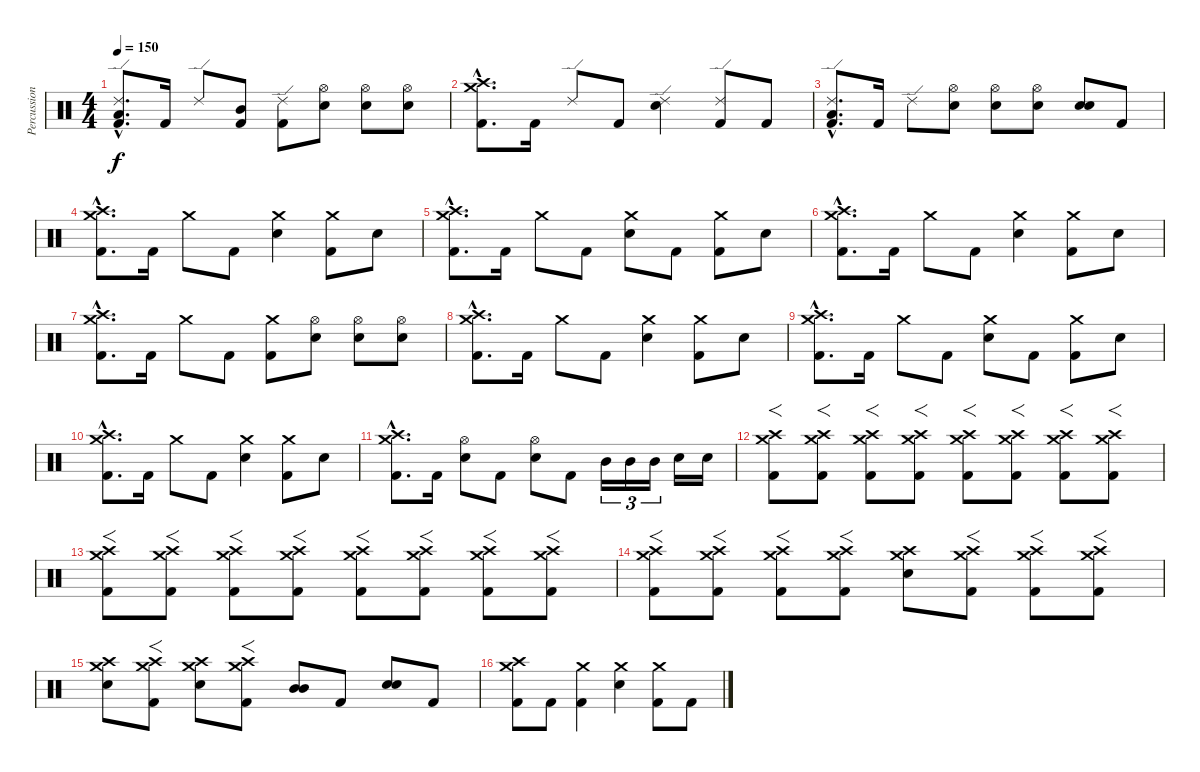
\track ("Percussion" "Percussion") {instrument percussion}
\staff {score}
\articulation defaults
\ts (4 4)
\tempo 150
\clef neutral
\ks c
("Ride (edge) 2"{hac} "Low Floor Tom (hit)"{hac} "Kick (hit) 2"{hac}).8{d dy f} "Kick (hit) 2".16 "Ride (edge) 2".8 ("Mid Tom (hit)" "Kick (hit) 2").8 ("Ride (edge) 2" "Kick (hit) 2").8 ("Hi-Hat (open)" "Snare (hit) 2").8 ("Hi-Hat (open)" "Snare (hit) 2").8 ("Hi-Hat (open)" "Snare (hit) 2").8 |
("Crash medium (hit)"{hac} "Crash high (hit)"{hac} "Kick (hit) 2"{hac}).8{d} "Kick (hit) 2".16 "Ride (edge) 2".8 "Kick (hit) 2".8 ("Ride (edge) 2" "Snare (hit) 2").4 ("Ride (edge) 2" "Kick (hit) 2").8 "Kick (hit) 2".8 |
("Ride (edge) 2"{hac} "Low Floor Tom (hit)"{hac} "Kick (hit) 2"{hac}).8{d} "Kick (hit) 2".16 "Ride (edge) 2".8 ("Hi-Hat (open)" "Snare (hit) 2").8 ("Hi-Hat (open)" "Snare (hit) 2").8 ("Hi-Hat (open)" "Snare (hit) 2").8 ("Snare (hit) 2" "Snare (hit) 2").8 "Kick (hit) 2".8 |
("Crash medium (hit)"{hac} "Crash high (hit)"{hac} "Kick (hit) 2"{hac}).8{d} "Kick (hit) 2".16 "Crash medium (hit)".8 "Kick (hit) 2".8 ("Crash medium (hit)" "Snare (hit) 2").4 ("Crash medium (hit)" "Kick (hit) 2").8 "Snare (hit) 2".8 |
("Crash medium (hit)"{hac} "Crash high (hit)"{hac} "Kick (hit) 2"{hac}).8{d} "Kick (hit) 2".16 "Crash medium (hit)".8 "Kick (hit) 2".8 ("Crash medium (hit)" "Snare (hit) 2").8 "Kick (hit) 2".8 ("Crash medium (hit)" "Kick (hit) 2").8 "Snare (hit) 2".8 |
("Crash medium (hit)"{hac} "Crash high (hit)"{hac} "Kick (hit) 2"{hac}).8{d} "Kick (hit) 2".16 "Crash medium (hit)".8 "Kick (hit) 2".8 ("Crash medium (hit)" "Snare (hit) 2").4 ("Crash medium (hit)" "Kick (hit) 2").8 "Snare (hit) 2".8 |
("Crash medium (hit)"{hac} "Crash high (hit)"{hac} "Kick (hit) 2"{hac}).8{d} "Kick (hit) 2".16 "Crash medium (hit)".8 "Kick (hit) 2".8 ("Crash medium (hit)" "Kick (hit) 2").8 ("Hi-Hat (open)" "Snare (hit) 2").8 ("Hi-Hat (open)" "Snare (hit) 2").8 ("Hi-Hat (open)" "Snare (hit) 2").8 |
("Crash medium (hit)"{hac} "Crash high (hit)"{hac} "Kick (hit) 2"{hac}).8{d} "Kick (hit) 2".16 "Crash medium (hit)".8 "Kick (hit) 2".8 ("Crash medium (hit)" "Snare (hit) 2").4 ("Crash medium (hit)" "Kick (hit) 2").8 "Snare (hit) 2".8 |
("Crash medium (hit)"{hac} "Crash high (hit)"{hac} "Kick (hit) 2"{hac}).8{d} "Kick (hit) 2".16 "Crash medium (hit)".8 "Kick (hit) 2".8 ("Crash medium (hit)" "Snare (hit) 2").8 "Kick (hit) 2".8 ("Crash medium (hit)" "Kick (hit) 2").8 "Snare (hit) 2".8 |
("Crash medium (hit)"{hac} "Crash high (hit)"{hac} "Kick (hit) 2"{hac}).8{d} "Kick (hit) 2".16 "Crash medium (hit)".8 "Kick (hit) 2".8 ("Crash medium (hit)" "Snare (hit) 2").4 ("Crash medium (hit)" "Kick (hit) 2").8 "Snare (hit) 2".8 |
("Crash medium (hit)"{hac} "Crash high (hit)"{hac} "Kick (hit) 2"{hac}).8{d} "Kick (hit) 2".16 ("Hi-Hat (open)" "Snare (hit) 2").8 "Kick (hit) 2".8 ("Hi-Hat (open)" "Snare (hit) 2").8 "Kick (hit) 2".8 "Mid Tom (hit)".16{tu (3 2)} "Mid Tom (hit)".16{tu (3 2)} "Mid Tom (hit)".16{tu (3 2)} "Snare (hit) 2".16 "Snare (hit) 2".16 |
("Crash medium (hit)" "Crash high (hit)" "Kick (hit) 2").8{f} ("Crash medium (hit)" "Crash high (hit)" "Kick (hit) 2").8{f} ("Crash medium (hit)" "Crash high (hit)" "Kick (hit) 2").8{f} ("Crash medium (hit)" "Crash high (hit)" "Kick (hit) 2").8{f} ("Crash medium (hit)" "Crash high (hit)" "Kick (hit) 2").8{f} ("Crash medium (hit)" "Crash high (hit)" "Kick (hit) 2").8{f} ("Crash medium (hit)" "Crash high (hit)" "Kick (hit) 2").8{f} ("Crash medium (hit)" "Crash high (hit)" "Kick (hit) 2").8{f} |
("Crash medium (hit)" "Crash high (hit)" "Kick (hit) 2").8{f} ("Crash medium (hit)" "Crash high (hit)" "Kick (hit) 2").8{f} ("Crash medium (hit)" "Crash high (hit)" "Kick (hit) 2").8{f} ("Crash medium (hit)" "Crash high (hit)" "Kick (hit) 2").8{f} ("Crash medium (hit)" "Crash high (hit)" "Kick (hit) 2").8{f} ("Crash medium (hit)" "Crash high (hit)" "Kick (hit) 2").8{f} ("Crash medium (hit)" "Crash high (hit)" "Kick (hit) 2").8{f} ("Crash medium (hit)" "Crash high (hit)" "Kick (hit) 2").8{f} |
("Crash medium (hit)" "Crash high (hit)" "Kick (hit) 2").8{f} ("Crash medium (hit)" "Crash high (hit)" "Kick (hit) 2").8{f} ("Crash medium (hit)" "Crash high (hit)" "Kick (hit) 2").8{f} ("Crash medium (hit)" "Crash high (hit)" "Kick (hit) 2").8{f} ("Crash medium (hit)" "Crash high (hit)" "Snare (hit) 2").8 ("Crash medium (hit)" "Crash high (hit)" "Kick (hit) 2").8{f} ("Crash medium (hit)" "Crash high (hit)" "Kick (hit) 2").8{f} ("Crash medium (hit)" "Crash high (hit)" "Kick (hit) 2").8{f} |
("Crash medium (hit)" "Crash high (hit)" "Snare (hit) 2").8 ("Crash medium (hit)" "Crash high (hit)" "Kick (hit) 2").8{f} ("Crash medium (hit)" "Crash high (hit)" "Snare (hit) 2").8 ("Crash medium (hit)" "Crash high (hit)" "Kick (hit) 2").8{f} ("Mid Tom (hit)" "Mid Tom (hit)").8 "Kick (hit) 2".8 ("Snare (hit) 2" "Snare (hit) 2").8 "Kick (hit) 2".8 |
("Crash medium (hit)" "Crash high (hit)" "Kick (hit) 2").8 "Kick (hit) 2".8 ("Crash medium (hit)" "Kick (hit) 2").4 ("Crash medium (hit)" "Snare (hit) 2").4 ("Crash medium (hit)" "Kick (hit) 2").8 "Kick (hit) 2".8
